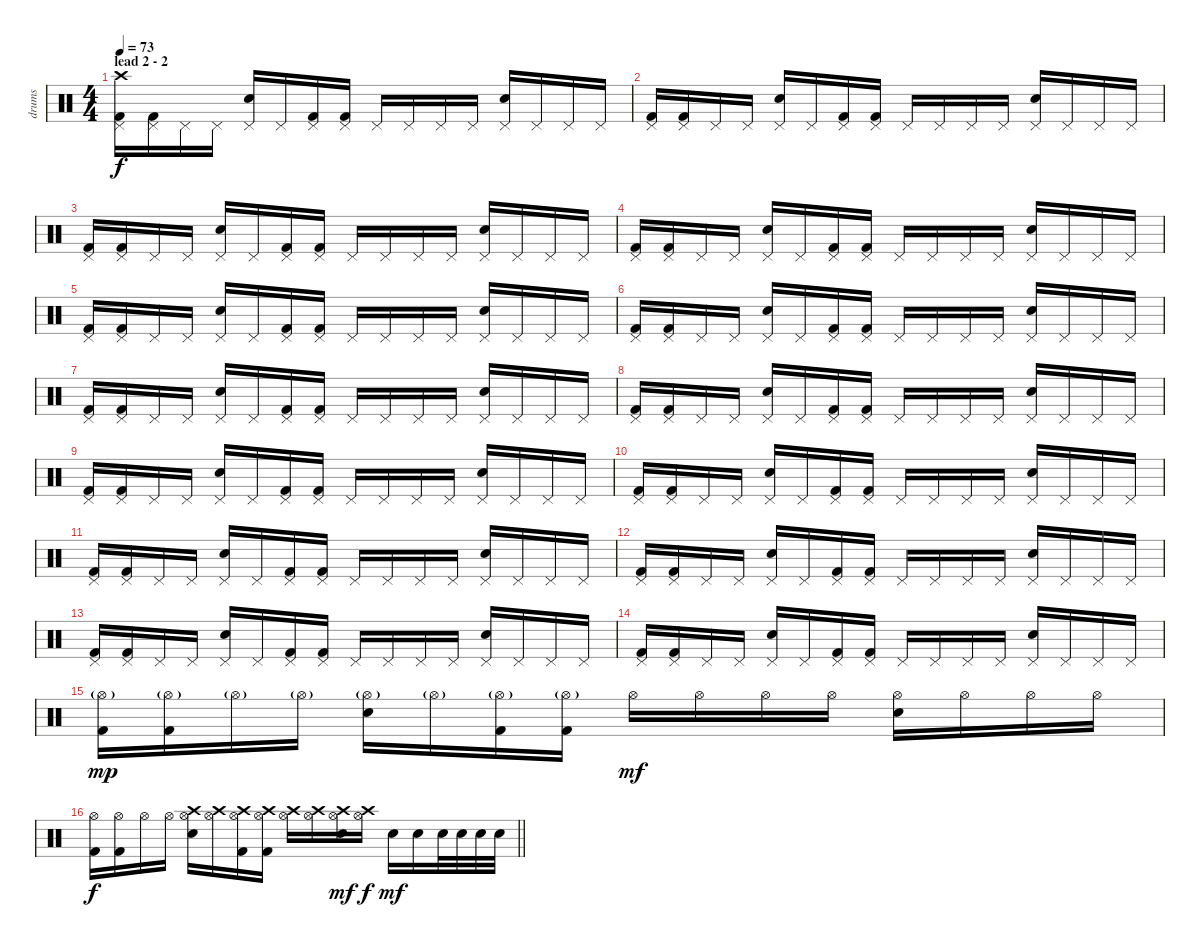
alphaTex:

\track ("drums" "drums") {instrument percussion}
\staff {score}
\articulation defaults
\ts (4 4)
\section ("" "lead 2 - 2")
\tempo 73
\clef neutral
\ks c
("Kick (hit) 2" "Pedal Hi-Hat (hit)" "Crash high (hit)").16{dy f} ("Kick (hit) 2" "Pedal Hi-Hat (hit)").16 "Pedal Hi-Hat (hit)".16 "Pedal Hi-Hat (hit)".16 ("Electric Snare (hit)" "Pedal Hi-Hat (hit)").16 "Pedal Hi-Hat (hit)".16 ("Kick (hit) 2" "Pedal Hi-Hat (hit)").16 ("Kick (hit) 2" "Pedal Hi-Hat (hit)").16 "Pedal Hi-Hat (hit)".16 "Pedal Hi-Hat (hit)".16 "Pedal Hi-Hat (hit)".16 "Pedal Hi-Hat (hit)".16 ("Electric Snare (hit)" "Pedal Hi-Hat (hit)").16 "Pedal Hi-Hat (hit)".16 "Pedal Hi-Hat (hit)".16 "Pedal Hi-Hat (hit)".16 |
("Kick (hit) 2" "Pedal Hi-Hat (hit)").16 ("Kick (hit) 2" "Pedal Hi-Hat (hit)").16 "Pedal Hi-Hat (hit)".16 "Pedal Hi-Hat (hit)".16 ("Electric Snare (hit)" "Pedal Hi-Hat (hit)").16 "Pedal Hi-Hat (hit)".16 ("Kick (hit) 2" "Pedal Hi-Hat (hit)").16 ("Kick (hit) 2" "Pedal Hi-Hat (hit)").16 "Pedal Hi-Hat (hit)".16 "Pedal Hi-Hat (hit)".16 "Pedal Hi-Hat (hit)".16 "Pedal Hi-Hat (hit)".16 ("Electric Snare (hit)" "Pedal Hi-Hat (hit)").16 "Pedal Hi-Hat (hit)".16 "Pedal Hi-Hat (hit)".16 "Pedal Hi-Hat (hit)".16 |
("Kick (hit) 2" "Pedal Hi-Hat (hit)").16 ("Kick (hit) 2" "Pedal Hi-Hat (hit)").16 "Pedal Hi-Hat (hit)".16 "Pedal Hi-Hat (hit)".16 ("Electric Snare (hit)" "Pedal Hi-Hat (hit)").16 "Pedal Hi-Hat (hit)".16 ("Kick (hit) 2" "Pedal Hi-Hat (hit)").16 ("Kick (hit) 2" "Pedal Hi-Hat (hit)").16 "Pedal Hi-Hat (hit)".16 "Pedal Hi-Hat (hit)".16 "Pedal Hi-Hat (hit)".16 "Pedal Hi-Hat (hit)".16 ("Electric Snare (hit)" "Pedal Hi-Hat (hit)").16 "Pedal Hi-Hat (hit)".16 "Pedal Hi-Hat (hit)".16 "Pedal Hi-Hat (hit)".16 |
("Kick (hit) 2" "Pedal Hi-Hat (hit)").16 ("Kick (hit) 2" "Pedal Hi-Hat (hit)").16 "Pedal Hi-Hat (hit)".16 "Pedal Hi-Hat (hit)".16 ("Electric Snare (hit)" "Pedal Hi-Hat (hit)").16 "Pedal Hi-Hat (hit)".16 ("Kick (hit) 2" "Pedal Hi-Hat (hit)").16 ("Kick (hit) 2" "Pedal Hi-Hat (hit)").16 "Pedal Hi-Hat (hit)".16 "Pedal Hi-Hat (hit)".16 "Pedal Hi-Hat (hit)".16 "Pedal Hi-Hat (hit)".16 ("Electric Snare (hit)" "Pedal Hi-Hat (hit)").16 "Pedal Hi-Hat (hit)".16 "Pedal Hi-Hat (hit)".16 "Pedal Hi-Hat (hit)".16 |
("Kick (hit) 2" "Pedal Hi-Hat (hit)").16 ("Kick (hit) 2" "Pedal Hi-Hat (hit)").16 "Pedal Hi-Hat (hit)".16 "Pedal Hi-Hat (hit)".16 ("Electric Snare (hit)" "Pedal Hi-Hat (hit)").16 "Pedal Hi-Hat (hit)".16 ("Kick (hit) 2" "Pedal Hi-Hat (hit)").16 ("Kick (hit) 2" "Pedal Hi-Hat (hit)").16 "Pedal Hi-Hat (hit)".16 "Pedal Hi-Hat (hit)".16 "Pedal Hi-Hat (hit)".16 "Pedal Hi-Hat (hit)".16 ("Electric Snare (hit)" "Pedal Hi-Hat (hit)").16 "Pedal Hi-Hat (hit)".16 "Pedal Hi-Hat (hit)".16 "Pedal Hi-Hat (hit)".16 |
("Kick (hit) 2" "Pedal Hi-Hat (hit)").16 ("Kick (hit) 2" "Pedal Hi-Hat (hit)").16 "Pedal Hi-Hat (hit)".16 "Pedal Hi-Hat (hit)".16 ("Electric Snare (hit)" "Pedal Hi-Hat (hit)").16 "Pedal Hi-Hat (hit)".16 ("Kick (hit) 2" "Pedal Hi-Hat (hit)").16 ("Kick (hit) 2" "Pedal Hi-Hat (hit)").16 "Pedal Hi-Hat (hit)".16 "Pedal Hi-Hat (hit)".16 "Pedal Hi-Hat (hit)".16 "Pedal Hi-Hat (hit)".16 ("Electric Snare (hit)" "Pedal Hi-Hat (hit)").16 "Pedal Hi-Hat (hit)".16 "Pedal Hi-Hat (hit)".16 "Pedal Hi-Hat (hit)".16 |
("Kick (hit) 2" "Pedal Hi-Hat (hit)").16 ("Kick (hit) 2" "Pedal Hi-Hat (hit)").16 "Pedal Hi-Hat (hit)".16 "Pedal Hi-Hat (hit)".16 ("Electric Snare (hit)" "Pedal Hi-Hat (hit)").16 "Pedal Hi-Hat (hit)".16 ("Kick (hit) 2" "Pedal Hi-Hat (hit)").16 ("Kick (hit) 2" "Pedal Hi-Hat (hit)").16 "Pedal Hi-Hat (hit)".16 "Pedal Hi-Hat (hit)".16 "Pedal Hi-Hat (hit)".16 "Pedal Hi-Hat (hit)".16 ("Electric Snare (hit)" "Pedal Hi-Hat (hit)").16 "Pedal Hi-Hat (hit)".16 "Pedal Hi-Hat (hit)".16 "Pedal Hi-Hat (hit)".16 |
("Kick (hit) 2" "Pedal Hi-Hat (hit)").16 ("Kick (hit) 2" "Pedal Hi-Hat (hit)").16 "Pedal Hi-Hat (hit)".16 "Pedal Hi-Hat (hit)".16 ("Electric Snare (hit)" "Pedal Hi-Hat (hit)").16 "Pedal Hi-Hat (hit)".16 ("Kick (hit) 2" "Pedal Hi-Hat (hit)").16 ("Kick (hit) 2" "Pedal Hi-Hat (hit)").16 "Pedal Hi-Hat (hit)".16 "Pedal Hi-Hat (hit)".16 "Pedal Hi-Hat (hit)".16 "Pedal Hi-Hat (hit)".16 ("Electric Snare (hit)" "Pedal Hi-Hat (hit)").16 "Pedal Hi-Hat (hit)".16 "Pedal Hi-Hat (hit)".16 "Pedal Hi-Hat (hit)".16 |
("Kick (hit) 2" "Pedal Hi-Hat (hit)").16 ("Kick (hit) 2" "Pedal Hi-Hat (hit)").16 "Pedal Hi-Hat (hit)".16 "Pedal Hi-Hat (hit)".16 ("Electric Snare (hit)" "Pedal Hi-Hat (hit)").16 "Pedal Hi-Hat (hit)".16 ("Kick (hit) 2" "Pedal Hi-Hat (hit)").16 ("Kick (hit) 2" "Pedal Hi-Hat (hit)").16 "Pedal Hi-Hat (hit)".16 "Pedal Hi-Hat (hit)".16 "Pedal Hi-Hat (hit)".16 "Pedal Hi-Hat (hit)".16 ("Electric Snare (hit)" "Pedal Hi-Hat (hit)").16 "Pedal Hi-Hat (hit)".16 "Pedal Hi-Hat (hit)".16 "Pedal Hi-Hat (hit)".16 |
("Kick (hit) 2" "Pedal Hi-Hat (hit)").16 ("Kick (hit) 2" "Pedal Hi-Hat (hit)").16 "Pedal Hi-Hat (hit)".16 "Pedal Hi-Hat (hit)".16 ("Electric Snare (hit)" "Pedal Hi-Hat (hit)").16 "Pedal Hi-Hat (hit)".16 ("Kick (hit) 2" "Pedal Hi-Hat (hit)").16 ("Kick (hit) 2" "Pedal Hi-Hat (hit)").16 "Pedal Hi-Hat (hit)".16 "Pedal Hi-Hat (hit)".16 "Pedal Hi-Hat (hit)".16 "Pedal Hi-Hat (hit)".16 ("Electric Snare (hit)" "Pedal Hi-Hat (hit)").16 "Pedal Hi-Hat (hit)".16 "Pedal Hi-Hat (hit)".16 "Pedal Hi-Hat (hit)".16 |
("Kick (hit) 2" "Pedal Hi-Hat (hit)").16 ("Kick (hit) 2" "Pedal Hi-Hat (hit)").16 "Pedal Hi-Hat (hit)".16 "Pedal Hi-Hat (hit)".16 ("Electric Snare (hit)" "Pedal Hi-Hat (hit)").16 "Pedal Hi-Hat (hit)".16 ("Kick (hit) 2" "Pedal Hi-Hat (hit)").16 ("Kick (hit) 2" "Pedal Hi-Hat (hit)").16 "Pedal Hi-Hat (hit)".16 "Pedal Hi-Hat (hit)".16 "Pedal Hi-Hat (hit)".16 "Pedal Hi-Hat (hit)".16 ("Electric Snare (hit)" "Pedal Hi-Hat (hit)").16 "Pedal Hi-Hat (hit)".16 "Pedal Hi-Hat (hit)".16 "Pedal Hi-Hat (hit)".16 |
("Kick (hit) 2" "Pedal Hi-Hat (hit)").16 ("Kick (hit) 2" "Pedal Hi-Hat (hit)").16 "Pedal Hi-Hat (hit)".16 "Pedal Hi-Hat (hit)".16 ("Electric Snare (hit)" "Pedal Hi-Hat (hit)").16 "Pedal Hi-Hat (hit)".16 ("Kick (hit) 2" "Pedal Hi-Hat (hit)").16 ("Kick (hit) 2" "Pedal Hi-Hat (hit)").16 "Pedal Hi-Hat (hit)".16 "Pedal Hi-Hat (hit)".16 "Pedal Hi-Hat (hit)".16 "Pedal Hi-Hat (hit)".16 ("Electric Snare (hit)" "Pedal Hi-Hat (hit)").16 "Pedal Hi-Hat (hit)".16 "Pedal Hi-Hat (hit)".16 "Pedal Hi-Hat (hit)".16 |
("Kick (hit) 2" "Pedal Hi-Hat (hit)").16 ("Kick (hit) 2" "Pedal Hi-Hat (hit)").16 "Pedal Hi-Hat (hit)".16 "Pedal Hi-Hat (hit)".16 ("Electric Snare (hit)" "Pedal Hi-Hat (hit)").16 "Pedal Hi-Hat (hit)".16 ("Kick (hit) 2" "Pedal Hi-Hat (hit)").16 ("Kick (hit) 2" "Pedal Hi-Hat (hit)").16 "Pedal Hi-Hat (hit)".16 "Pedal Hi-Hat (hit)".16 "Pedal Hi-Hat (hit)".16 "Pedal Hi-Hat (hit)".16 ("Electric Snare (hit)" "Pedal Hi-Hat (hit)").16 "Pedal Hi-Hat (hit)".16 "Pedal Hi-Hat (hit)".16 "Pedal Hi-Hat (hit)".16 |
("Kick (hit) 2" "Pedal Hi-Hat (hit)").16 ("Kick (hit) 2" "Pedal Hi-Hat (hit)").16 "Pedal Hi-Hat (hit)".16 "Pedal Hi-Hat (hit)".16 ("Electric Snare (hit)" "Pedal Hi-Hat (hit)").16 "Pedal Hi-Hat (hit)".16 ("Kick (hit) 2" "Pedal Hi-Hat (hit)").16 ("Kick (hit) 2" "Pedal Hi-Hat (hit)").16 "Pedal Hi-Hat (hit)".16 "Pedal Hi-Hat (hit)".16 "Pedal Hi-Hat (hit)".16 "Pedal Hi-Hat (hit)".16 ("Electric Snare (hit)" "Pedal Hi-Hat (hit)").16 "Pedal Hi-Hat (hit)".16 "Pedal Hi-Hat (hit)".16 "Pedal Hi-Hat (hit)".16 |
("Kick (hit) 2" "Hi-Hat (open)"{g}).16{dy mp} ("Kick (hit) 2" "Hi-Hat (open)"{g}).16 "Hi-Hat (open)"{g}.16 "Hi-Hat (open)"{g}.16 ("Electric Snare (hit)" "Hi-Hat (open)"{g}).16 "Hi-Hat (open)"{g}.16 ("Kick (hit) 2" "Hi-Hat (open)"{g}).16 ("Kick (hit) 2" "Hi-Hat (open)"{g}).16 "Hi-Hat (open)".16{dy mf} "Hi-Hat (open)".16 "Hi-Hat (open)".16 "Hi-Hat (open)".16 ("Electric Snare (hit)" "Hi-Hat (open)").16 "Hi-Hat (open)".16 "Hi-Hat (open)".16 "Hi-Hat (open)".16 |
\barLineRight lightlight
("Kick (hit) 2" "Hi-Hat (open)").16{dy f} ("Kick (hit) 2" "Hi-Hat (open)").16 "Hi-Hat (open)".16 "Hi-Hat (open)".16 ("Electric Snare (hit)" "Hi-Hat (open)" "Crash high (hit)").16 ("Hi-Hat (open)" "Crash high (hit)").16 ("Kick (hit) 2" "Hi-Hat (open)" "Crash high (hit)").16 ("Kick (hit) 2" "Hi-Hat (open)" "Crash high (hit)").16 ("Hi-Hat (open)" "Crash high (hit)").16 ("Hi-Hat (open)" "Crash high (hit)").16 ("Electric Snare (hit)" "Hi-Hat (open)" "Crash high (hit)").16{dy mf} ("Hi-Hat (open)" "Crash high (hit)").16{dy f} "Electric Snare (hit)".16{dy mf} "Electric Snare (hit)".16 "Electric Snare (hit)".32 "Electric Snare (hit)".32 "Electric Snare (hit)".32 "Electric Snare (hit)".32
